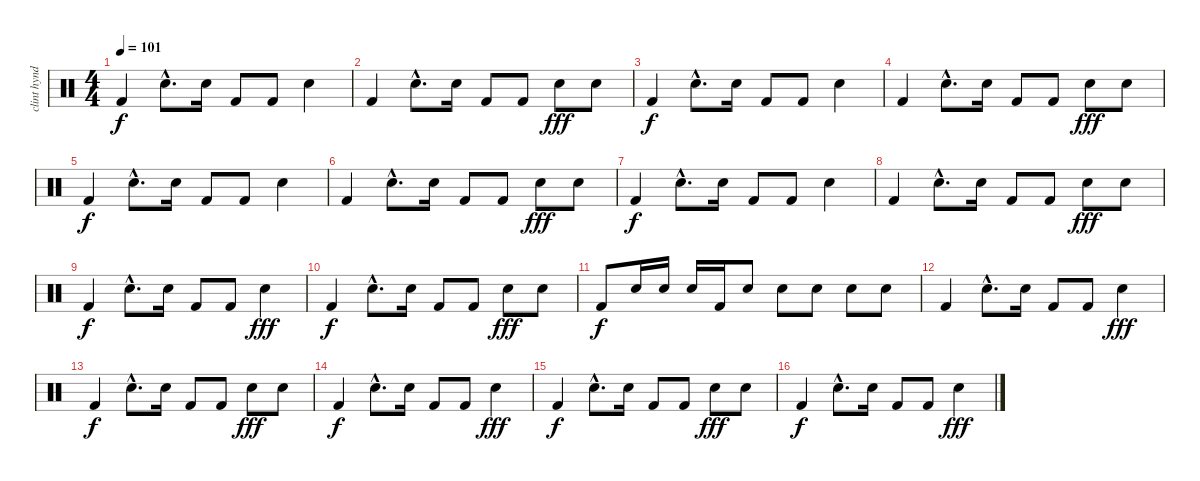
\track ("clint hyndman" "clint hynd") {instrument percussion}
\staff {score}
\articulation defaults
\ts (4 4)
\tempo 101
\clef neutral
\ks c "Kick (hit) 2".4{dy f} "Electric Snare (hit)"{hac}.8{d} "Electric Snare (hit)".16 "Kick (hit) 2".8 "Kick (hit) 2".8 "Electric Snare (hit)".4
|
"Kick (hit) 2".4 "Electric Snare (hit)"{hac}.8{d} "Electric Snare (hit)".16 "Kick (hit) 2".8 "Kick (hit) 2".8 "Electric Snare (hit)".8{dy fff} "Electric Snare (hit)".8 |
"Kick (hit) 2".4{dy f} "Electric Snare (hit)"{hac}.8{d} "Electric Snare (hit)".16 "Kick (hit) 2".8 "Kick (hit) 2".8 "Electric Snare (hit)".4 |
"Kick (hit) 2".4 "Electric Snare (hit)"{hac}.8{d} "Electric Snare (hit)".16 "Kick (hit) 2".8 "Kick (hit) 2".8 "Electric Snare (hit)".8{dy fff} "Electric Snare (hit)".8 |
"Kick (hit) 2".4{dy f} "Electric Snare (hit)"{hac}.8{d} "Electric Snare (hit)".16 "Kick (hit) 2".8 "Kick (hit) 2".8 "Electric Snare (hit)".4 |
"Kick (hit) 2".4 "Electric Snare (hit)"{hac}.8{d} "Electric Snare (hit)".16 "Kick (hit) 2".8 "Kick (hit) 2".8 "Electric Snare (hit)".8{dy fff} "Electric Snare (hit)".8 |
"Kick (hit) 2".4{dy f} "Electric Snare (hit)"{hac}.8{d} "Electric Snare (hit)".16 "Kick (hit) 2".8 "Kick (hit) 2".8 "Electric Snare (hit)".4 |
"Kick (hit) 2".4 "Electric Snare (hit)"{hac}.8{d} "Electric Snare (hit)".16 "Kick (hit) 2".8 "Kick (hit) 2".8 "Electric Snare (hit)".8{dy fff} "Electric Snare (hit)".8 |
"Kick (hit) 2".4{dy f} "Electric Snare (hit)"{hac}.8{d} "Electric Snare (hit)".16 "Kick (hit) 2".8 "Kick (hit) 2".8 "Electric Snare (hit)".4{dy fff} |
"Kick (hit) 2".4{dy f} "Electric Snare (hit)"{hac}.8{d} "Electric Snare (hit)".16 "Kick (hit) 2".8 "Kick (hit) 2".8 "Electric Snare (hit)".8{dy fff} "Electric Snare (hit)".8 |
"Kick (hit) 2".8{dy f} "Electric Snare (hit)".16 "Electric Snare (hit)".16 "Electric Snare (hit)".16 "Kick (hit) 2".16 "Electric Snare (hit)".8 "Electric Snare (hit)".8 "Electric Snare (hit)".8 "Electric Snare (hit)".8 "Electric Snare (hit)".8 |
"Kick (hit) 2".4 "Electric Snare (hit)"{hac}.8{d} "Electric Snare (hit)".16 "Kick (hit) 2".8 "Kick (hit) 2".8 "Electric Snare (hit)".4{dy fff} |
"Kick (hit) 2".4{dy f} "Electric Snare (hit)"{hac}.8{d} "Electric Snare (hit)".16 "Kick (hit) 2".8 "Kick (hit) 2".8 "Electric Snare (hit)".8{dy fff} "Electric Snare (hit)".8 |
"Kick (hit) 2".4{dy f} "Electric Snare (hit)"{hac}.8{d} "Electric Snare (hit)".16 "Kick (hit) 2".8 "Kick (hit) 2".8 "Electric Snare (hit)".4{dy fff} |
"Kick (hit) 2".4{dy f} "Electric Snare (hit)"{hac}.8{d} "Electric Snare (hit)".16 "Kick (hit) 2".8 "Kick (hit) 2".8 "Electric Snare (hit)".8{dy fff} "Electric Snare (hit)".8 |
"Kick (hit) 2".4{dy f} "Electric Snare (hit)"{hac}.8{d} "Electric Snare (hit)".16 "Kick (hit) 2".8 "Kick (hit) 2".8 "Electric Snare (hit)".4{dy fff}
